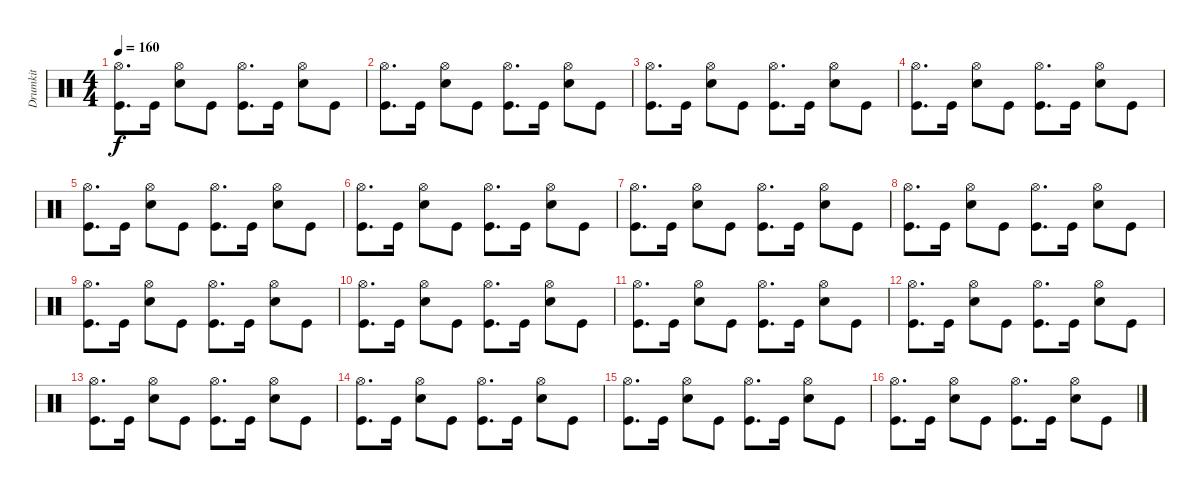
\track ("Drumkit" "Drumkit") {instrument percussion}
\staff {score}
\articulation defaults
\ts (4 4)
\tempo 160
\clef neutral
\ks c
("Kick (hit)" "Hi-Hat (open)").8{d dy f} "Kick (hit)".16 ("Hi-Hat (open)" "Snare (hit) 2").8 "Kick (hit)".8 ("Kick (hit)" "Hi-Hat (open)").8{d} "Kick (hit)".16 ("Hi-Hat (open)" "Snare (hit) 2").8 "Kick (hit)".8 |
("Kick (hit)" "Hi-Hat (open)").8{d} "Kick (hit)".16 ("Hi-Hat (open)" "Snare (hit) 2").8 "Kick (hit)".8 ("Kick (hit)" "Hi-Hat (open)").8{d} "Kick (hit)".16 ("Hi-Hat (open)" "Snare (hit) 2").8 "Kick (hit)".8 |
("Kick (hit)" "Hi-Hat (open)").8{d} "Kick (hit)".16 ("Hi-Hat (open)" "Snare (hit) 2").8 "Kick (hit)".8 ("Kick (hit)" "Hi-Hat (open)").8{d} "Kick (hit)".16 ("Hi-Hat (open)" "Snare (hit) 2").8 "Kick (hit)".8 |
("Kick (hit)" "Hi-Hat (open)").8{d} "Kick (hit)".16 ("Hi-Hat (open)" "Snare (hit) 2").8 "Kick (hit)".8 ("Kick (hit)" "Hi-Hat (open)").8{d} "Kick (hit)".16 ("Hi-Hat (open)" "Snare (hit) 2").8 "Kick (hit)".8 |
("Kick (hit)" "Hi-Hat (open)").8{d} "Kick (hit)".16 ("Hi-Hat (open)" "Snare (hit) 2").8 "Kick (hit)".8 ("Kick (hit)" "Hi-Hat (open)").8{d} "Kick (hit)".16 ("Hi-Hat (open)" "Snare (hit) 2").8 "Kick (hit)".8 |
("Kick (hit)" "Hi-Hat (open)").8{d} "Kick (hit)".16 ("Hi-Hat (open)" "Snare (hit) 2").8 "Kick (hit)".8 ("Kick (hit)" "Hi-Hat (open)").8{d} "Kick (hit)".16 ("Hi-Hat (open)" "Snare (hit) 2").8 "Kick (hit)".8 |
("Kick (hit)" "Hi-Hat (open)").8{d} "Kick (hit)".16 ("Hi-Hat (open)" "Snare (hit) 2").8 "Kick (hit)".8 ("Kick (hit)" "Hi-Hat (open)").8{d} "Kick (hit)".16 ("Hi-Hat (open)" "Snare (hit) 2").8 "Kick (hit)".8 |
("Kick (hit)" "Hi-Hat (open)").8{d} "Kick (hit)".16 ("Hi-Hat (open)" "Snare (hit) 2").8 "Kick (hit)".8 ("Kick (hit)" "Hi-Hat (open)").8{d} "Kick (hit)".16 ("Hi-Hat (open)" "Snare (hit) 2").8 "Kick (hit)".8 |
("Kick (hit)" "Hi-Hat (open)").8{d} "Kick (hit)".16 ("Hi-Hat (open)" "Snare (hit) 2").8 "Kick (hit)".8 ("Kick (hit)" "Hi-Hat (open)").8{d} "Kick (hit)".16 ("Hi-Hat (open)" "Snare (hit) 2").8 "Kick (hit)".8 |
("Kick (hit)" "Hi-Hat (open)").8{d} "Kick (hit)".16 ("Hi-Hat (open)" "Snare (hit) 2").8 "Kick (hit)".8 ("Kick (hit)" "Hi-Hat (open)").8{d} "Kick (hit)".16 ("Hi-Hat (open)" "Snare (hit) 2").8 "Kick (hit)".8 |
("Kick (hit)" "Hi-Hat (open)").8{d} "Kick (hit)".16 ("Hi-Hat (open)" "Snare (hit) 2").8 "Kick (hit)".8 ("Kick (hit)" "Hi-Hat (open)").8{d} "Kick (hit)".16 ("Hi-Hat (open)" "Snare (hit) 2").8 "Kick (hit)".8 |
("Kick (hit)" "Hi-Hat (open)").8{d} "Kick (hit)".16 ("Hi-Hat (open)" "Snare (hit) 2").8 "Kick (hit)".8 ("Kick (hit)" "Hi-Hat (open)").8{d} "Kick (hit)".16 ("Hi-Hat (open)" "Snare (hit) 2").8 "Kick (hit)".8 |
("Kick (hit)" "Hi-Hat (open)").8{d} "Kick (hit)".16 ("Hi-Hat (open)" "Snare (hit) 2").8 "Kick (hit)".8 ("Kick (hit)" "Hi-Hat (open)").8{d} "Kick (hit)".16 ("Hi-Hat (open)" "Snare (hit) 2").8 "Kick (hit)".8 |
("Kick (hit)" "Hi-Hat (open)").8{d} "Kick (hit)".16 ("Hi-Hat (open)" "Snare (hit) 2").8 "Kick (hit)".8 ("Kick (hit)" "Hi-Hat (open)").8{d} "Kick (hit)".16 ("Hi-Hat (open)" "Snare (hit) 2").8 "Kick (hit)".8 |
("Kick (hit)" "Hi-Hat (open)").8{d} "Kick (hit)".16 ("Hi-Hat (open)" "Snare (hit) 2").8 "Kick (hit)".8 ("Kick (hit)" "Hi-Hat (open)").8{d} "Kick (hit)".16 ("Hi-Hat (open)" "Snare (hit) 2").8 "Kick (hit)".8 |
("Kick (hit)" "Hi-Hat (open)").8{d} "Kick (hit)".16 ("Hi-Hat (open)" "Snare (hit) 2").8 "Kick (hit)".8 ("Kick (hit)" "Hi-Hat (open)").8{d} "Kick (hit)".16 ("Hi-Hat (open)" "Snare (hit) 2").8 "Kick (hit)".8
